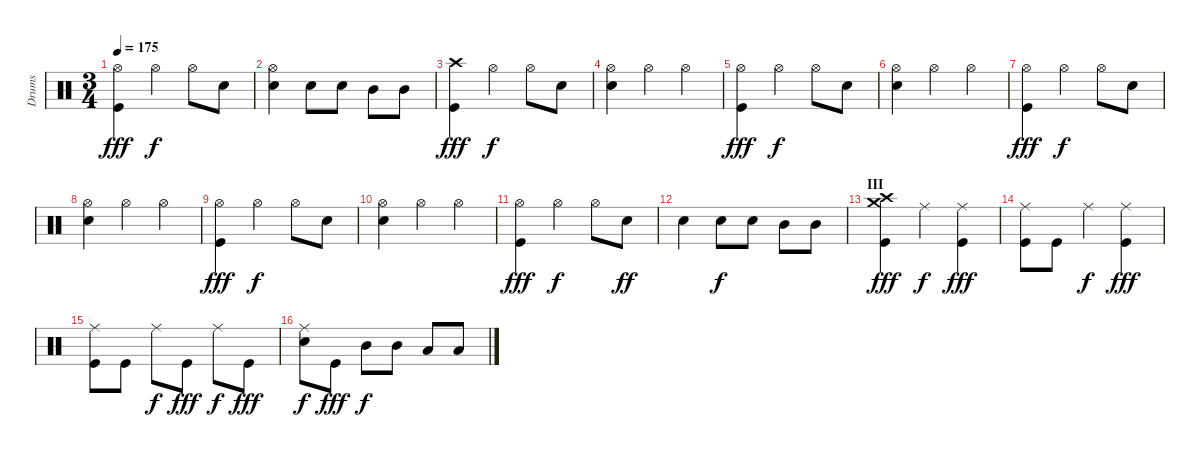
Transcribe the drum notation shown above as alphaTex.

\track ("Drums" "Drums") {instrument percussion}
\staff {score}
\articulation defaults
\ts (3 4)
\tempo 175
\clef neutral
\ks c
("Hi-Hat (open)" "Kick (hit)").4{dy fff} "Hi-Hat (open)".4{dy f} "Hi-Hat (open)".8 "Snare (hit) 2".8 |
("Hi-Hat (open)" "Snare (hit) 2").4 "Snare (hit) 2".8 "Snare (hit) 2".8 "Mid Tom (hit)".8 "Mid Tom (hit)".8 |
("Crash high (hit)" "Kick (hit)").4{dy fff} "Hi-Hat (open)".4{dy f} "Hi-Hat (open)".8 "Snare (hit) 2".8 |
("Hi-Hat (open)" "Snare (hit) 2").4 "Hi-Hat (open)".4 "Hi-Hat (open)".4 |
("Hi-Hat (open)" "Kick (hit)").4{dy fff} "Hi-Hat (open)".4{dy f} "Hi-Hat (open)".8 "Snare (hit) 2".8 |
("Hi-Hat (open)" "Snare (hit) 2").4 "Hi-Hat (open)".4 "Hi-Hat (open)".4 |
("Hi-Hat (open)" "Kick (hit)").4{dy fff} "Hi-Hat (open)".4{dy f} "Hi-Hat (open)".8 "Snare (hit) 2".8 |
("Hi-Hat (open)" "Snare (hit) 2").4 "Hi-Hat (open)".4 "Hi-Hat (open)".4 |
("Hi-Hat (open)" "Kick (hit)").4{dy fff} "Hi-Hat (open)".4{dy f} "Hi-Hat (open)".8 "Snare (hit) 2".8 |
("Hi-Hat (open)" "Snare (hit) 2").4 "Hi-Hat (open)".4 "Hi-Hat (open)".4 |
("Hi-Hat (open)" "Kick (hit)").4{dy fff} "Hi-Hat (open)".4{dy f} "Hi-Hat (open)".8 "Snare (hit) 2".8{dy ff} |
"Snare (hit) 2".4 "Snare (hit) 2".8{dy f} "Snare (hit) 2".8 "Mid Tom (hit)".8 "Mid Tom (hit)".8 |
\section ("" "III")
("Crash high (hit)" "Crash medium (hit)" "Kick (hit)").4{dy fff} "Ride (middle)".4{dy f} ("Ride (middle)" "Kick (hit)").4{dy fff} |
("Ride (middle)" "Kick (hit)").8 "Kick (hit)".8 "Ride (middle)".4{dy f} ("Ride (middle)" "Kick (hit)").4{dy fff} |
("Ride (middle)" "Kick (hit)").8 "Kick (hit)".8 "Ride (middle)".8{dy f} "Kick (hit)".8{dy fff} "Ride (middle)".8{dy f} "Kick (hit)".8{dy fff} |
("Ride (middle)" "Snare (hit) 2").8{dy f} "Kick (hit)".8{dy fff} "Mid Tom (hit)".8{dy f} "Mid Tom (hit)".8 "Low Tom (hit)".8 "Low Tom (hit)".8
